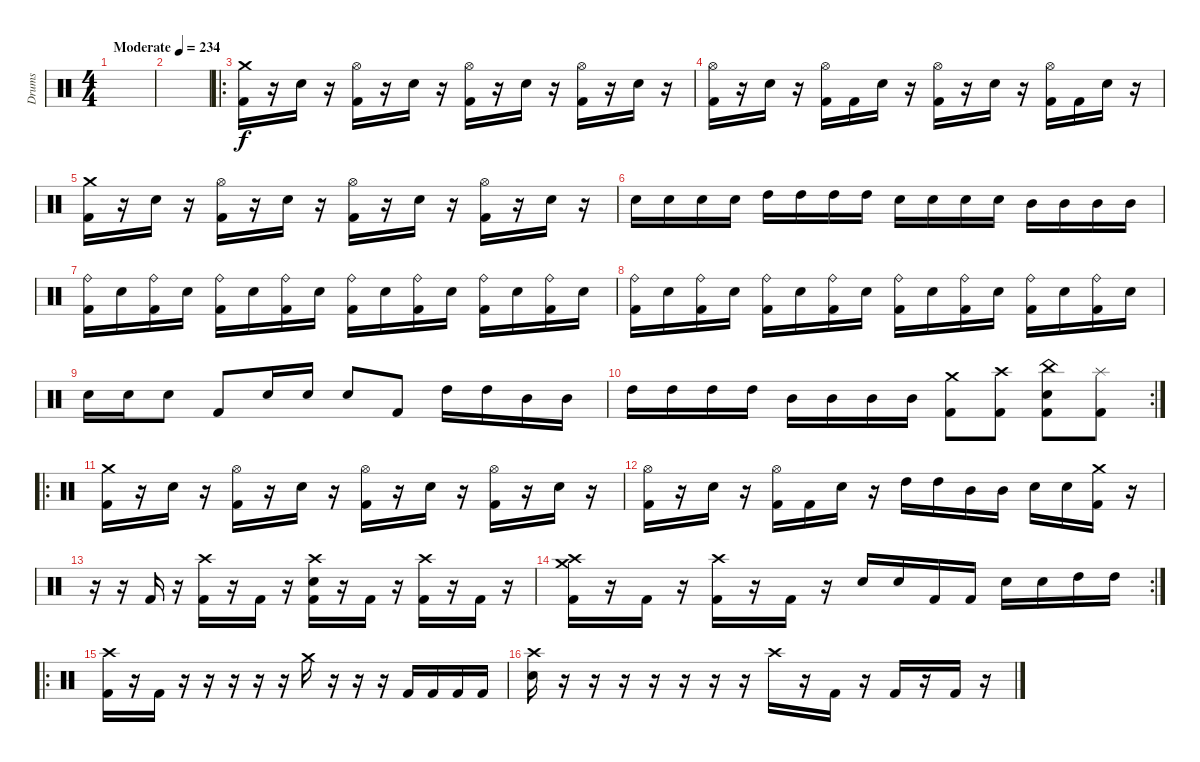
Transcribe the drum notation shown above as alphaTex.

\track ("Drums" "Drums") {instrument percussion}
\staff {score}
\articulation defaults
\ts (4 4)
\tempo (234 "Moderate")
\clef neutral
\ks c
|
|
\ro
("Crash medium (hit)" "Kick (hit) 2").16 r.16 "Electric Snare (hit)".16 r.16 ("Hi-Hat (open)" "Kick (hit) 2").16 r.16 "Electric Snare (hit)".16 r.16 ("Hi-Hat (open)" "Kick (hit) 2").16 r.16 "Electric Snare (hit)".16 r.16 ("Hi-Hat (open)" "Kick (hit) 2").16 r.16 "Electric Snare (hit)".16 r.16 |
("Hi-Hat (open)" "Kick (hit) 2").16 r.16 "Electric Snare (hit)".16 r.16 ("Hi-Hat (open)" "Kick (hit) 2").16 "Kick (hit) 2".16 "Electric Snare (hit)".16 r.16 ("Hi-Hat (open)" "Kick (hit) 2").16 r.16 "Electric Snare (hit)".16 r.16 ("Hi-Hat (open)" "Kick (hit) 2").16 "Kick (hit) 2".16 "Electric Snare (hit)".16 r.16 |
("Crash medium (hit)" "Kick (hit) 2").16 r.16 "Electric Snare (hit)".16 r.16 ("Hi-Hat (open)" "Kick (hit) 2").16 r.16 "Electric Snare (hit)".16 r.16 ("Hi-Hat (open)" "Kick (hit) 2").16 r.16 "Electric Snare (hit)".16 r.16 ("Hi-Hat (open)" "Kick (hit) 2").16 r.16 "Electric Snare (hit)".16 r.16 |
"Electric Snare (hit)".16 "Electric Snare (hit)".16 "Electric Snare (hit)".16 "Electric Snare (hit)".16 "High Tom (hit)".16 "High Tom (hit)".16 "High Tom (hit)".16 "High Tom (hit)".16 "Electric Snare (hit)".16 "Electric Snare (hit)".16 "Electric Snare (hit)".16 "Electric Snare (hit)".16 "Mid Tom (hit)".16 "Mid Tom (hit)".16 "Mid Tom (hit)".16 "Mid Tom (hit)".16 |
("Ride (bell)" "Kick (hit) 2").16 "Electric Snare (hit)".16 ("Ride (bell)" "Kick (hit) 2").16 "Electric Snare (hit)".16 ("Ride (bell)" "Kick (hit) 2").16 "Electric Snare (hit)".16 ("Ride (bell)" "Kick (hit) 2").16 "Electric Snare (hit)".16 ("Ride (bell)" "Kick (hit) 2").16 "Electric Snare (hit)".16 ("Ride (bell)" "Kick (hit) 2").16 "Electric Snare (hit)".16 ("Ride (bell)" "Kick (hit) 2").16 "Electric Snare (hit)".16 ("Ride (bell)" "Kick (hit) 2").16 "Electric Snare (hit)".16 |
("Ride (bell)" "Kick (hit) 2").16 "Electric Snare (hit)".16 ("Ride (bell)" "Kick (hit) 2").16 "Electric Snare (hit)".16 ("Ride (bell)" "Kick (hit) 2").16 "Electric Snare (hit)".16 ("Ride (bell)" "Kick (hit) 2").16 "Electric Snare (hit)".16 ("Ride (bell)" "Kick (hit) 2").16 "Electric Snare (hit)".16 ("Ride (bell)" "Kick (hit) 2").16 "Electric Snare (hit)".16 ("Ride (bell)" "Kick (hit) 2").16 "Electric Snare (hit)".16 ("Ride (bell)" "Kick (hit) 2").16 "Electric Snare (hit)".16 |
"Electric Snare (hit)".16 "Electric Snare (hit)".16 "Electric Snare (hit)".8 "Kick (hit) 2".8 "Electric Snare (hit)".16 "Electric Snare (hit)".16 "Electric Snare (hit)".8 "Kick (hit) 2".8 "High Tom (hit)".16 "High Tom (hit)".16 "Mid Tom (hit)".16 "Mid Tom (hit)".16 |
\rc 2 "High Tom (hit)".16 "High Tom (hit)".16 "High Tom (hit)".16 "High Tom (hit)".16 "Mid Tom (hit)".16 "Mid Tom (hit)".16 "Mid Tom (hit)".16 "Mid Tom (hit)".16
("Crash medium (hit)" "Kick (hit) 2").8 ("Crash high (hit)" "Kick (hit) 2").8 ("China (hit)" "Electric Snare (hit)" "Kick (hit) 2").8 ("Splash (hit)" "Kick (hit) 2").8 |
\ro
("Crash medium (hit)" "Kick (hit) 2").16 r.16 "Electric Snare (hit)".16 r.16 ("Hi-Hat (open)" "Kick (hit) 2").16 r.16 "Electric Snare (hit)".16 r.16 ("Hi-Hat (open)" "Kick (hit) 2").16 r.16 "Electric Snare (hit)".16 r.16 ("Hi-Hat (open)" "Kick (hit) 2").16 r.16 "Electric Snare (hit)".16 r.16 |
("Hi-Hat (open)" "Kick (hit) 2").16 r.16 "Electric Snare (hit)".16 r.16 ("Hi-Hat (open)" "Kick (hit) 2").16 "Kick (hit) 2".16 "Electric Snare (hit)".16 r.16 "High Tom (hit)".16 "High Tom (hit)".16 "Mid Tom (hit)".16 "Mid Tom (hit)".16 "Electric Snare (hit)".16 "Electric Snare (hit)".16 ("Crash medium (hit)" "Kick (hit) 2").16 r.16 |
r.16 r.16 "Kick (hit) 2".16 r.16 ("Crash high (hit)" "Kick (hit) 2").16 r.16 "Kick (hit) 2".16 r.16 ("Crash high (hit)" "Electric Snare (hit)" "Kick (hit) 2").16 r.16 "Kick (hit) 2".16 r.16 ("Crash high (hit)" "Kick (hit) 2").16 r.16 "Kick (hit) 2".16 r.16 |
\rc 2
("Crash high (hit)" "Crash medium (hit)" "Kick (hit) 2").16 r.16 "Kick (hit) 2".16 r.16 ("Crash high (hit)" "Kick (hit) 2").16 r.16 "Kick (hit) 2".16 r.16 "Electric Snare (hit)".16 "Electric Snare (hit)".16 "Kick (hit) 2".16 "Kick (hit) 2".16 "Electric Snare (hit)".16 "Electric Snare (hit)".16 "High Tom (hit)".16 "High Tom (hit)".16 |
\ro
("Crash high (hit)" "Kick (hit) 2").16 r.16 "Kick (hit) 2".16 r.16 r.16 r.16 r.16 r.16 "Crash medium (hit)".16 r.16 r.16 r.16 "Kick (hit) 2".16 "Kick (hit) 2".16 "Kick (hit) 2".16 "Kick (hit) 2".16 |
("Crash high (hit)" "Electric Snare (hit)").16 r.16 r.16 r.16 r.16 r.16 r.16 r.16 "Crash high (hit)".16 r.16 "Kick (hit) 2".16 r.16 "Kick (hit) 2".16 r.16 "Kick (hit) 2".16 r.16
